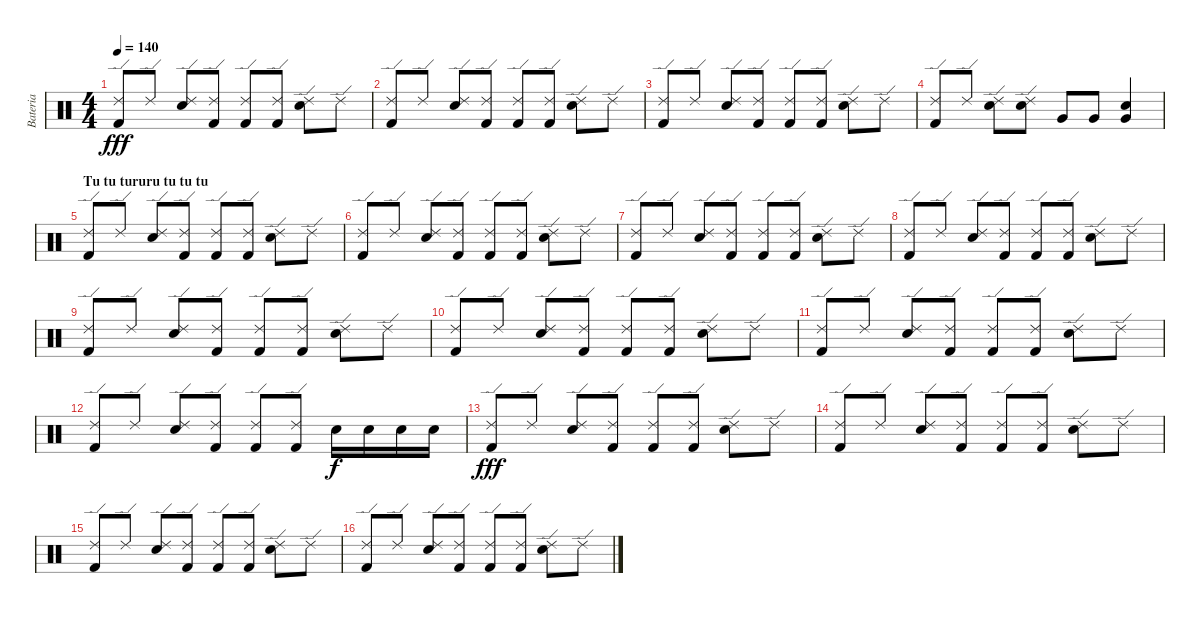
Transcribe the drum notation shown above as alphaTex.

\track ("Bateria" "Bateria") {instrument percussion}
\staff {score}
\articulation defaults
\ts (4 4)
\tempo 140
\clef neutral
\ks c
("Ride (edge) 2" "Kick (hit) 2").8{dy fff} "Ride (edge) 2".8 ("Ride (edge) 2" "Snare (hit) 2").8 ("Ride (edge) 2" "Kick (hit) 2").8 ("Ride (edge) 2" "Kick (hit) 2").8 ("Ride (edge) 2" "Kick (hit) 2").8 ("Ride (edge) 2" "Snare (hit) 2").8 "Ride (edge) 2".8 |
("Ride (edge) 2" "Kick (hit) 2").8 "Ride (edge) 2".8 ("Ride (edge) 2" "Snare (hit) 2").8 ("Ride (edge) 2" "Kick (hit) 2").8 ("Ride (edge) 2" "Kick (hit) 2").8 ("Ride (edge) 2" "Kick (hit) 2").8 ("Ride (edge) 2" "Snare (hit) 2").8 "Ride (edge) 2".8 |
("Ride (edge) 2" "Kick (hit) 2").8 "Ride (edge) 2".8 ("Ride (edge) 2" "Snare (hit) 2").8 ("Ride (edge) 2" "Kick (hit) 2").8 ("Ride (edge) 2" "Kick (hit) 2").8 ("Ride (edge) 2" "Kick (hit) 2").8 ("Ride (edge) 2" "Snare (hit) 2").8 "Ride (edge) 2".8 |
("Ride (edge) 2" "Kick (hit) 2").8 "Ride (edge) 2".8 ("Ride (edge) 2" "Snare (hit) 2").8 ("Ride (edge) 2" "Snare (hit) 2").8 "Very Low Tom (hit)".8 "Very Low Tom (hit)".8 ("Snare (hit) 2" "Very Low Tom (hit)").4 |
\section ("" "Tu tu tururu tu tu tu")
("Ride (edge) 2" "Kick (hit) 2").8 "Ride (edge) 2".8 ("Ride (edge) 2" "Snare (hit) 2").8 ("Ride (edge) 2" "Kick (hit) 2").8 ("Ride (edge) 2" "Kick (hit) 2").8 ("Ride (edge) 2" "Kick (hit) 2").8 ("Ride (edge) 2" "Snare (hit) 2").8 "Ride (edge) 2".8 |
("Ride (edge) 2" "Kick (hit) 2").8 "Ride (edge) 2".8 ("Ride (edge) 2" "Snare (hit) 2").8 ("Ride (edge) 2" "Kick (hit) 2").8 ("Ride (edge) 2" "Kick (hit) 2").8 ("Ride (edge) 2" "Kick (hit) 2").8 ("Ride (edge) 2" "Snare (hit) 2").8 "Ride (edge) 2".8 |
("Ride (edge) 2" "Kick (hit) 2").8 "Ride (edge) 2".8 ("Ride (edge) 2" "Snare (hit) 2").8 ("Ride (edge) 2" "Kick (hit) 2").8 ("Ride (edge) 2" "Kick (hit) 2").8 ("Ride (edge) 2" "Kick (hit) 2").8 ("Ride (edge) 2" "Snare (hit) 2").8 "Ride (edge) 2".8 |
("Ride (edge) 2" "Kick (hit) 2").8 "Ride (edge) 2".8 ("Ride (edge) 2" "Snare (hit) 2").8 ("Ride (edge) 2" "Kick (hit) 2").8 ("Ride (edge) 2" "Kick (hit) 2").8 ("Ride (edge) 2" "Kick (hit) 2").8 ("Ride (edge) 2" "Snare (hit) 2").8 "Ride (edge) 2".8 |
("Ride (edge) 2" "Kick (hit) 2").8 "Ride (edge) 2".8 ("Ride (edge) 2" "Snare (hit) 2").8 ("Ride (edge) 2" "Kick (hit) 2").8 ("Ride (edge) 2" "Kick (hit) 2").8 ("Ride (edge) 2" "Kick (hit) 2").8 ("Ride (edge) 2" "Snare (hit) 2").8 "Ride (edge) 2".8 |
("Ride (edge) 2" "Kick (hit) 2").8 "Ride (edge) 2".8 ("Ride (edge) 2" "Snare (hit) 2").8 ("Ride (edge) 2" "Kick (hit) 2").8 ("Ride (edge) 2" "Kick (hit) 2").8 ("Ride (edge) 2" "Kick (hit) 2").8 ("Ride (edge) 2" "Snare (hit) 2").8 "Ride (edge) 2".8 |
("Ride (edge) 2" "Kick (hit) 2").8 "Ride (edge) 2".8 ("Ride (edge) 2" "Snare (hit) 2").8 ("Ride (edge) 2" "Kick (hit) 2").8 ("Ride (edge) 2" "Kick (hit) 2").8 ("Ride (edge) 2" "Kick (hit) 2").8 ("Ride (edge) 2" "Snare (hit) 2").8 "Ride (edge) 2".8 |
("Ride (edge) 2" "Kick (hit) 2").8 "Ride (edge) 2".8 ("Ride (edge) 2" "Snare (hit) 2").8 ("Ride (edge) 2" "Kick (hit) 2").8 ("Ride (edge) 2" "Kick (hit) 2").8 ("Ride (edge) 2" "Kick (hit) 2").8 "Snare (hit) 2".16{dy f} "Snare (hit) 2".16 "Snare (hit) 2".16 "Snare (hit) 2".16 |
("Ride (edge) 2" "Kick (hit) 2").8{dy fff} "Ride (edge) 2".8 ("Ride (edge) 2" "Snare (hit) 2").8 ("Ride (edge) 2" "Kick (hit) 2").8 ("Ride (edge) 2" "Kick (hit) 2").8 ("Ride (edge) 2" "Kick (hit) 2").8 ("Ride (edge) 2" "Snare (hit) 2").8 "Ride (edge) 2".8 |
("Ride (edge) 2" "Kick (hit) 2").8 "Ride (edge) 2".8 ("Ride (edge) 2" "Snare (hit) 2").8 ("Ride (edge) 2" "Kick (hit) 2").8 ("Ride (edge) 2" "Kick (hit) 2").8 ("Ride (edge) 2" "Kick (hit) 2").8 ("Ride (edge) 2" "Snare (hit) 2").8 "Ride (edge) 2".8 |
("Ride (edge) 2" "Kick (hit) 2").8 "Ride (edge) 2".8 ("Ride (edge) 2" "Snare (hit) 2").8 ("Ride (edge) 2" "Kick (hit) 2").8 ("Ride (edge) 2" "Kick (hit) 2").8 ("Ride (edge) 2" "Kick (hit) 2").8 ("Ride (edge) 2" "Snare (hit) 2").8 "Ride (edge) 2".8 |
("Ride (edge) 2" "Kick (hit) 2").8 "Ride (edge) 2".8 ("Ride (edge) 2" "Snare (hit) 2").8 ("Ride (edge) 2" "Kick (hit) 2").8 ("Ride (edge) 2" "Kick (hit) 2").8 ("Ride (edge) 2" "Kick (hit) 2").8 ("Ride (edge) 2" "Snare (hit) 2").8 "Ride (edge) 2".8
